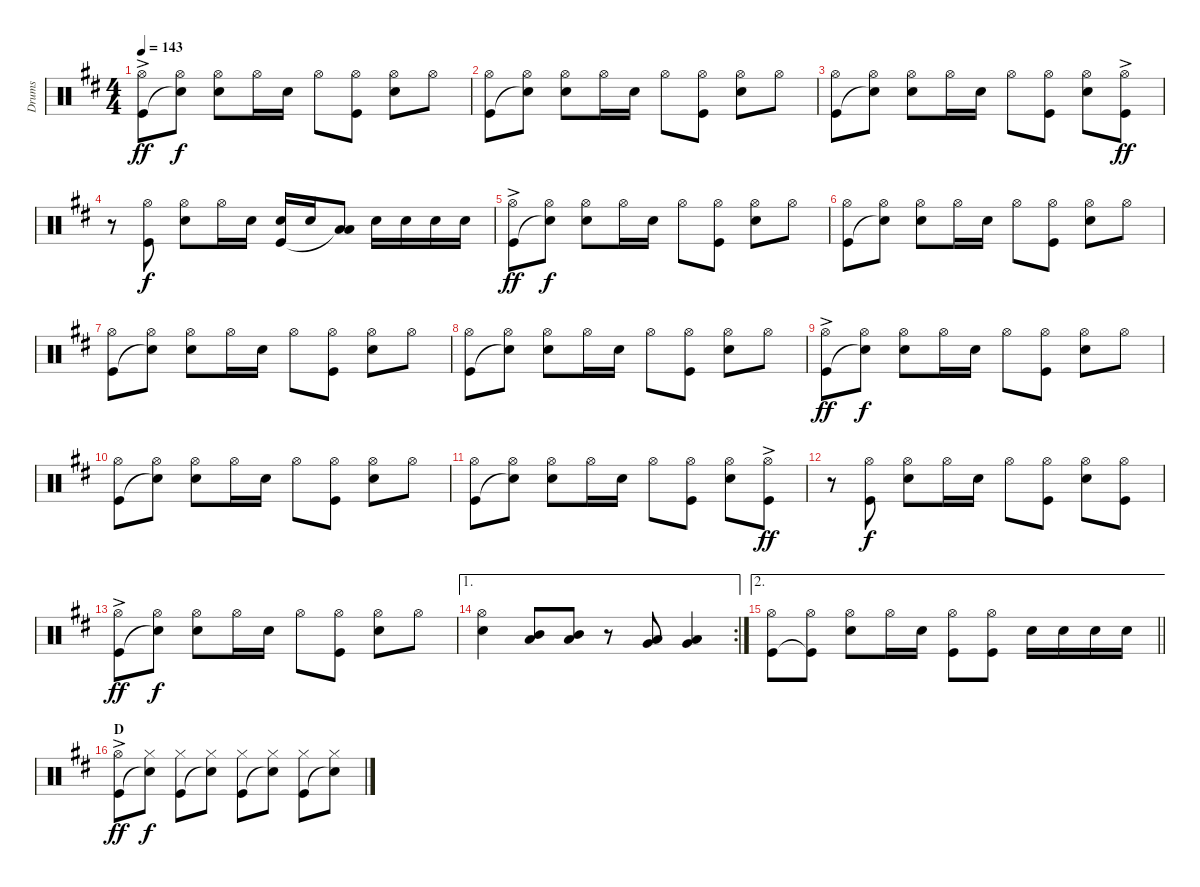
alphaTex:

\track ("Drums" "Drums") {instrument percussion}
\staff {score}
\articulation defaults
\ts (4 4)
\tempo 143
\clef neutral
\ks d
("Hi-Hat (open)"{ac} "Kick (hit)"{ac}).8{dy ff} ("Hi-Hat (open)" "Snare (hit)"{t}).8{dy f} ("Hi-Hat (open)" "Snare (hit) 2").8 "Hi-Hat (open)".16 "Snare (hit) 2".16 "Hi-Hat (open)".8 ("Hi-Hat (open)" "Kick (hit)").8 ("Hi-Hat (open)" "Snare (hit) 2").8 "Hi-Hat (open)".8 |
("Hi-Hat (open)" "Kick (hit)").8 ("Hi-Hat (open)" "Snare (hit)"{t}).8 ("Hi-Hat (open)" "Snare (hit) 2").8 "Hi-Hat (open)".16 "Snare (hit) 2".16 "Hi-Hat (open)".8 ("Hi-Hat (open)" "Kick (hit)").8 ("Hi-Hat (open)" "Snare (hit) 2").8 "Hi-Hat (open)".8 |
("Hi-Hat (open)" "Kick (hit)").8 ("Hi-Hat (open)" "Snare (hit)"{t}).8 ("Hi-Hat (open)" "Snare (hit) 2").8 "Hi-Hat (open)".16 "Snare (hit) 2".16 "Hi-Hat (open)".8 ("Hi-Hat (open)" "Kick (hit)").8 ("Hi-Hat (open)" "Snare (hit) 2").8 ("Hi-Hat (open)"{ac} "Kick (hit)"{ac}).8{dy ff} |
r.8 ("Hi-Hat (open)" "Kick (hit)").8{dy f} ("Hi-Hat (open)" "Snare (hit) 2").8 "Hi-Hat (open)".16 "Snare (hit) 2".16 ("Snare (hit) 2" "Kick (hit)").16 "Snare (hit) 2".16 ("Low Tom (hit)" "Low Tom (hit)"{t}).8 "Snare (hit) 2".16 "Snare (hit) 2".16 "Snare (hit) 2".16 "Snare (hit) 2".16 |
("Hi-Hat (open)"{ac} "Kick (hit)"{ac}).8{dy ff} ("Hi-Hat (open)" "Snare (hit)"{t}).8{dy f} ("Hi-Hat (open)" "Snare (hit) 2").8 "Hi-Hat (open)".16 "Snare (hit) 2".16 "Hi-Hat (open)".8 ("Hi-Hat (open)" "Kick (hit)").8 ("Hi-Hat (open)" "Snare (hit) 2").8 "Hi-Hat (open)".8 |
("Hi-Hat (open)" "Kick (hit)").8 ("Hi-Hat (open)" "Snare (hit)"{t}).8 ("Hi-Hat (open)" "Snare (hit) 2").8 "Hi-Hat (open)".16 "Snare (hit) 2".16 "Hi-Hat (open)".8 ("Hi-Hat (open)" "Kick (hit)").8 ("Hi-Hat (open)" "Snare (hit) 2").8 "Hi-Hat (open)".8 |
("Hi-Hat (open)" "Kick (hit)").8 ("Hi-Hat (open)" "Snare (hit)"{t}).8 ("Hi-Hat (open)" "Snare (hit) 2").8 "Hi-Hat (open)".16 "Snare (hit) 2".16 "Hi-Hat (open)".8 ("Hi-Hat (open)" "Kick (hit)").8 ("Hi-Hat (open)" "Snare (hit) 2").8 "Hi-Hat (open)".8 |
("Hi-Hat (open)" "Kick (hit)").8 ("Hi-Hat (open)" "Snare (hit)"{t}).8 ("Hi-Hat (open)" "Snare (hit) 2").8 "Hi-Hat (open)".16 "Snare (hit) 2".16 "Hi-Hat (open)".8 ("Hi-Hat (open)" "Kick (hit)").8 ("Hi-Hat (open)" "Snare (hit) 2").8 "Hi-Hat (open)".8 |
("Hi-Hat (open)"{ac} "Kick (hit)"{ac}).8{dy ff} ("Hi-Hat (open)" "Snare (hit)"{t}).8{dy f} ("Hi-Hat (open)" "Snare (hit) 2").8 "Hi-Hat (open)".16 "Snare (hit) 2".16 "Hi-Hat (open)".8 ("Hi-Hat (open)" "Kick (hit)").8 ("Hi-Hat (open)" "Snare (hit) 2").8 "Hi-Hat (open)".8 |
("Hi-Hat (open)" "Kick (hit)").8 ("Hi-Hat (open)" "Snare (hit)"{t}).8 ("Hi-Hat (open)" "Snare (hit) 2").8 "Hi-Hat (open)".16 "Snare (hit) 2".16 "Hi-Hat (open)".8 ("Hi-Hat (open)" "Kick (hit)").8 ("Hi-Hat (open)" "Snare (hit) 2").8 "Hi-Hat (open)".8 |
("Hi-Hat (open)" "Kick (hit)").8 ("Hi-Hat (open)" "Snare (hit)"{t}).8 ("Hi-Hat (open)" "Snare (hit) 2").8 "Hi-Hat (open)".16 "Snare (hit) 2".16 "Hi-Hat (open)".8 ("Hi-Hat (open)" "Kick (hit)").8 ("Hi-Hat (open)" "Snare (hit) 2").8 ("Hi-Hat (open)"{ac} "Kick (hit)"{ac}).8{dy ff} |
r.8 ("Hi-Hat (open)" "Kick (hit)").8{dy f} ("Hi-Hat (open)" "Snare (hit) 2").8 "Hi-Hat (open)".16 "Snare (hit) 2".16 "Hi-Hat (open)".8 ("Hi-Hat (open)" "Kick (hit)").8 ("Hi-Hat (open)" "Snare (hit) 2").8 ("Hi-Hat (open)" "Kick (hit)").8 |
("Hi-Hat (open)"{ac} "Kick (hit)"{ac}).8{dy ff} ("Hi-Hat (open)" "Snare (hit)"{t}).8{dy f} ("Hi-Hat (open)" "Snare (hit) 2").8 "Hi-Hat (open)".16 "Snare (hit) 2".16 "Hi-Hat (open)".8 ("Hi-Hat (open)" "Kick (hit)").8 ("Hi-Hat (open)" "Snare (hit) 2").8 "Hi-Hat (open)".8 |
\ae 1
\rc 2
("Hi-Hat (open)" "Snare (hit) 2").4 ("Mid Tom (hit)" "Low Tom (hit)").8 ("Mid Tom (hit)" "Low Tom (hit)").8 r.8 ("Very Low Tom (hit)" "Low Tom (hit)").8 ("Very Low Tom (hit)" "Low Tom (hit)").4 |
\ae 2
\barLineRight lightlight
("Hi-Hat (open)" "Kick (hit)").8 ("Hi-Hat (open)" "Kick (hit)"{t}).8 ("Hi-Hat (open)" "Snare (hit) 2").8 "Hi-Hat (open)".16 "Snare (hit) 2".16 ("Hi-Hat (open)" "Kick (hit)").8 ("Hi-Hat (open)" "Kick (hit)").8 "Snare (hit) 2".16 "Snare (hit) 2".16 "Snare (hit) 2".16 "Snare (hit) 2".16 |
\section ("" "D")
("Hi-Hat (open)"{ac} "Kick (hit)"{ac}).8{dy ff} ("Hi-Hat (closed)" "Snare (hit)"{t}).8{dy f} ("Hi-Hat (closed)" "Kick (hit)").8 ("Hi-Hat (closed)" "Snare (hit)"{t}).8 ("Hi-Hat (closed)" "Kick (hit)").8 ("Hi-Hat (closed)" "Snare (hit)"{t}).8 ("Hi-Hat (closed)" "Kick (hit)").8 ("Hi-Hat (closed)" "Snare (hit)"{t}).8
